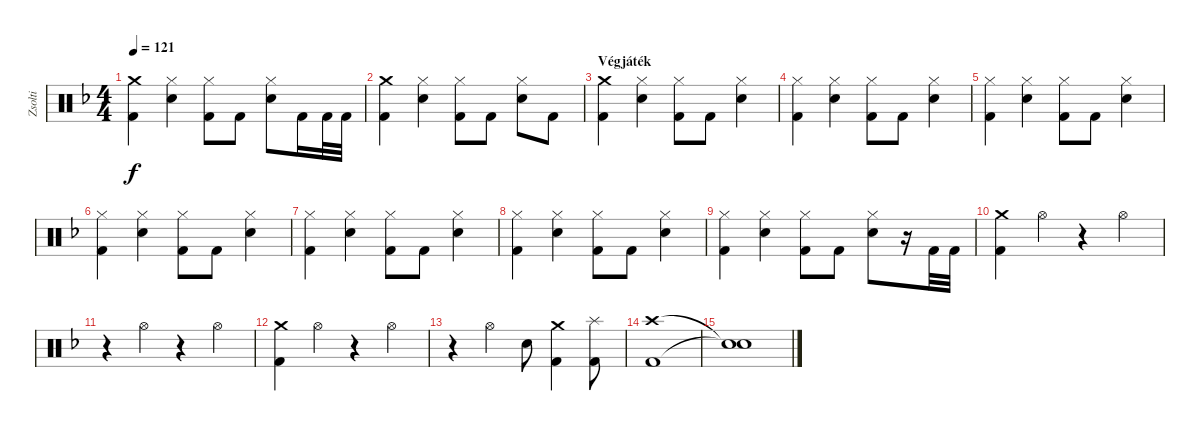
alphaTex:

\track ("Zsolti" "Zsolti") {instrument percussion}
\staff {score}
\articulation defaults
\ts (4 4)
\tempo 121
\clef neutral
\ks dminor
("Crash medium (hit)" "Kick (hit) 2").4{dy f} ("Hi-Hat (closed)" "Snare (hit) 2").4 ("Hi-Hat (closed)" "Kick (hit) 2").8 "Kick (hit) 2".8 ("Hi-Hat (closed)" "Snare (hit) 2").8 "Kick (hit) 2".16 "Kick (hit) 2".32 "Kick (hit) 2".32 |
("Crash medium (hit)" "Kick (hit) 2").4 ("Hi-Hat (closed)" "Snare (hit) 2").4 ("Hi-Hat (closed)" "Kick (hit) 2").8 "Kick (hit) 2".8 ("Hi-Hat (closed)" "Snare (hit) 2").8 "Kick (hit) 2".8 |
\section ("" "Végjáték")
("Crash medium (hit)" "Kick (hit) 2").4 ("Hi-Hat (closed)" "Snare (hit) 2").4 ("Hi-Hat (closed)" "Kick (hit) 2").8 "Kick (hit) 2".8 ("Hi-Hat (closed)" "Snare (hit) 2").4 |
("Hi-Hat (closed)" "Kick (hit) 2").4 ("Hi-Hat (closed)" "Snare (hit) 2").4 ("Hi-Hat (closed)" "Kick (hit) 2").8 "Kick (hit) 2".8 ("Hi-Hat (closed)" "Snare (hit) 2").4 |
("Hi-Hat (closed)" "Kick (hit) 2").4 ("Hi-Hat (closed)" "Snare (hit) 2").4 ("Hi-Hat (closed)" "Kick (hit) 2").8 "Kick (hit) 2".8 ("Hi-Hat (closed)" "Snare (hit) 2").4 |
("Hi-Hat (closed)" "Kick (hit) 2").4 ("Hi-Hat (closed)" "Snare (hit) 2").4 ("Hi-Hat (closed)" "Kick (hit) 2").8 "Kick (hit) 2".8 ("Hi-Hat (closed)" "Snare (hit) 2").4 |
("Hi-Hat (closed)" "Kick (hit) 2").4 ("Hi-Hat (closed)" "Snare (hit) 2").4 ("Hi-Hat (closed)" "Kick (hit) 2").8 "Kick (hit) 2".8 ("Hi-Hat (closed)" "Snare (hit) 2").4 |
("Hi-Hat (closed)" "Kick (hit) 2").4 ("Hi-Hat (closed)" "Snare (hit) 2").4 ("Hi-Hat (closed)" "Kick (hit) 2").8 "Kick (hit) 2".8 ("Hi-Hat (closed)" "Snare (hit) 2").4 |
("Hi-Hat (closed)" "Kick (hit) 2").4 ("Hi-Hat (closed)" "Snare (hit) 2").4 ("Hi-Hat (closed)" "Kick (hit) 2").8 "Kick (hit) 2".8 ("Hi-Hat (closed)" "Snare (hit) 2").8 r.16 "Kick (hit) 2".32 "Kick (hit) 2".32 |
("Crash medium (hit)" "Kick (hit) 2").4 "Hi-Hat (open)".4 r.4 "Hi-Hat (open)".4 |
r.4 "Hi-Hat (open)".4 r.4 "Hi-Hat (open)".4 |
("Crash medium (hit)" "Kick (hit) 2").4 "Hi-Hat (open)".4 r.4 "Hi-Hat (open)".4 |
r.4 "Hi-Hat (open)".4 "Snare (hit) 2".8 ("Crash medium (hit)" "Kick (hit) 2").4 ("Splash (hit)" "Kick (hit) 2").8 |
("Crash high (hit)" "Kick (hit) 2").1 |
("Snare (hit)"{t} "Snare (hit)"{t}).1
